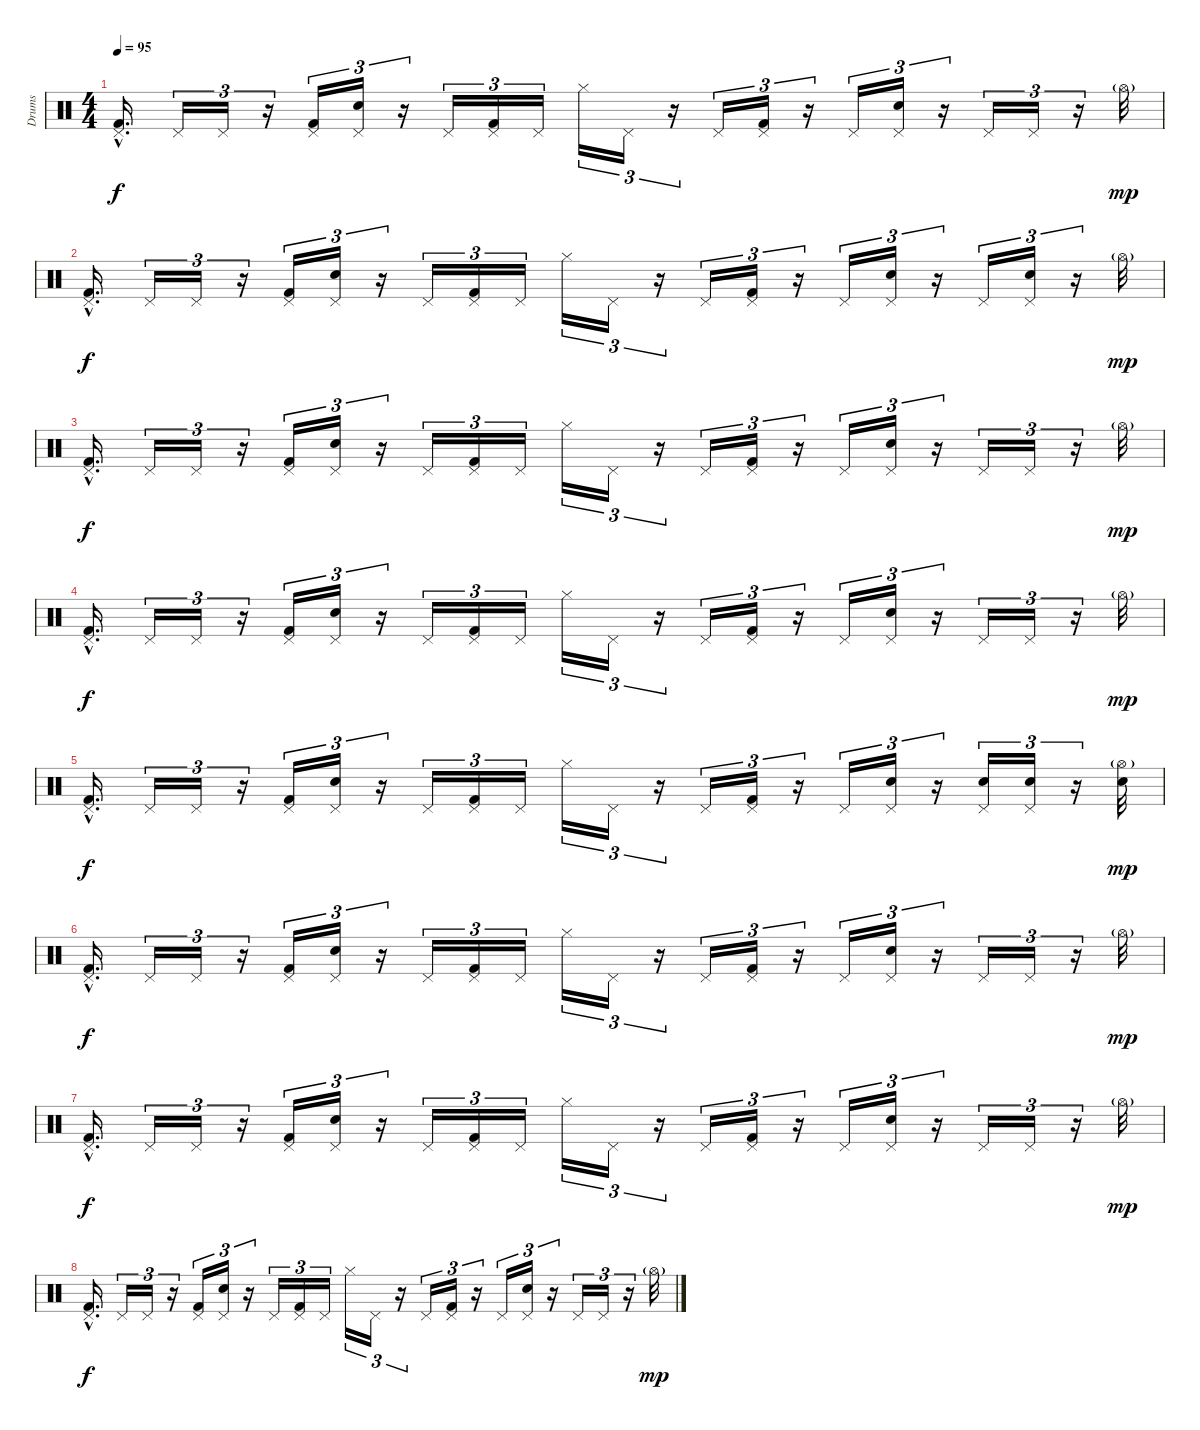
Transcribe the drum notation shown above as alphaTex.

\track ("Drums" "Drums") {instrument percussion}
\staff {score}
\articulation defaults
\ts (4 4)
\tempo 95
\clef neutral
\ks c
("Pedal Hi-Hat (hit)"{hac} "Kick (hit) 2"{hac}).16{d dy f volume 13} "Pedal Hi-Hat (hit)".16{tu (3 2)} "Pedal Hi-Hat (hit)".16{tu (3 2)} r.16{tu (3 2)} ("Pedal Hi-Hat (hit)" "Kick (hit) 2").16{tu (3 2)} ("Pedal Hi-Hat (hit)" "Electric Snare (hit)").16{tu (3 2)} r.16{tu (3 2)} "Pedal Hi-Hat (hit)".16{tu (3 2)} ("Pedal Hi-Hat (hit)" "Kick (hit) 2").16{tu (3 2)} "Pedal Hi-Hat (hit)".16{tu (3 2)} "Hi-Hat (closed)".16{tu (3 2)} "Pedal Hi-Hat (hit)".16{tu (3 2)} r.16{tu (3 2)} "Pedal Hi-Hat (hit)".16{tu (3 2)} ("Pedal Hi-Hat (hit)" "Kick (hit) 2").16{tu (3 2)} r.16{tu (3 2)} "Pedal Hi-Hat (hit)".16{tu (3 2)} ("Pedal Hi-Hat (hit)" "Electric Snare (hit)").16{tu (3 2)} r.16{tu (3 2)} "Pedal Hi-Hat (hit)".16{tu (3 2)} "Pedal Hi-Hat (hit)".16{tu (3 2)} r.16{tu (3 2)} "Hi-Hat (open)"{g}.32{dy mp} |
("Pedal Hi-Hat (hit)"{hac} "Kick (hit) 2"{hac}).16{d dy f} "Pedal Hi-Hat (hit)".16{tu (3 2)} "Pedal Hi-Hat (hit)".16{tu (3 2)} r.16{tu (3 2)} ("Pedal Hi-Hat (hit)" "Kick (hit) 2").16{tu (3 2)} ("Pedal Hi-Hat (hit)" "Electric Snare (hit)").16{tu (3 2)} r.16{tu (3 2)} "Pedal Hi-Hat (hit)".16{tu (3 2)} ("Pedal Hi-Hat (hit)" "Kick (hit) 2").16{tu (3 2)} "Pedal Hi-Hat (hit)".16{tu (3 2)} "Hi-Hat (closed)".16{tu (3 2)} "Pedal Hi-Hat (hit)".16{tu (3 2)} r.16{tu (3 2)} "Pedal Hi-Hat (hit)".16{tu (3 2)} ("Pedal Hi-Hat (hit)" "Kick (hit) 2").16{tu (3 2)} r.16{tu (3 2)} "Pedal Hi-Hat (hit)".16{tu (3 2)} ("Pedal Hi-Hat (hit)" "Electric Snare (hit)").16{tu (3 2)} r.16{tu (3 2)} "Pedal Hi-Hat (hit)".16{tu (3 2)} ("Pedal Hi-Hat (hit)" "Electric Snare (hit)").16{tu (3 2)} r.16{tu (3 2)} "Hi-Hat (open)"{g}.32{dy mp} |
("Pedal Hi-Hat (hit)"{hac} "Kick (hit) 2"{hac}).16{d dy f} "Pedal Hi-Hat (hit)".16{tu (3 2)} "Pedal Hi-Hat (hit)".16{tu (3 2)} r.16{tu (3 2)} ("Pedal Hi-Hat (hit)" "Kick (hit) 2").16{tu (3 2)} ("Pedal Hi-Hat (hit)" "Electric Snare (hit)").16{tu (3 2)} r.16{tu (3 2)} "Pedal Hi-Hat (hit)".16{tu (3 2)} ("Pedal Hi-Hat (hit)" "Kick (hit) 2").16{tu (3 2)} "Pedal Hi-Hat (hit)".16{tu (3 2)} "Hi-Hat (closed)".16{tu (3 2)} "Pedal Hi-Hat (hit)".16{tu (3 2)} r.16{tu (3 2)} "Pedal Hi-Hat (hit)".16{tu (3 2)} ("Pedal Hi-Hat (hit)" "Kick (hit) 2").16{tu (3 2)} r.16{tu (3 2)} "Pedal Hi-Hat (hit)".16{tu (3 2)} ("Pedal Hi-Hat (hit)" "Electric Snare (hit)").16{tu (3 2)} r.16{tu (3 2)} "Pedal Hi-Hat (hit)".16{tu (3 2)} "Pedal Hi-Hat (hit)".16{tu (3 2)} r.16{tu (3 2)} "Hi-Hat (open)"{g}.32{dy mp} |
("Pedal Hi-Hat (hit)"{hac} "Kick (hit) 2"{hac}).16{d dy f} "Pedal Hi-Hat (hit)".16{tu (3 2)} "Pedal Hi-Hat (hit)".16{tu (3 2)} r.16{tu (3 2)} ("Pedal Hi-Hat (hit)" "Kick (hit) 2").16{tu (3 2)} ("Pedal Hi-Hat (hit)" "Electric Snare (hit)").16{tu (3 2)} r.16{tu (3 2)} "Pedal Hi-Hat (hit)".16{tu (3 2)} ("Pedal Hi-Hat (hit)" "Kick (hit) 2").16{tu (3 2)} "Pedal Hi-Hat (hit)".16{tu (3 2)} "Hi-Hat (closed)".16{tu (3 2)} "Pedal Hi-Hat (hit)".16{tu (3 2)} r.16{tu (3 2)} "Pedal Hi-Hat (hit)".16{tu (3 2)} ("Pedal Hi-Hat (hit)" "Kick (hit) 2").16{tu (3 2)} r.16{tu (3 2)} "Pedal Hi-Hat (hit)".16{tu (3 2)} ("Pedal Hi-Hat (hit)" "Electric Snare (hit)").16{tu (3 2)} r.16{tu (3 2)} "Pedal Hi-Hat (hit)".16{tu (3 2)} "Pedal Hi-Hat (hit)".16{tu (3 2)} r.16{tu (3 2)} "Hi-Hat (open)"{g}.32{dy mp} |
("Pedal Hi-Hat (hit)"{hac} "Kick (hit) 2"{hac}).16{d dy f} "Pedal Hi-Hat (hit)".16{tu (3 2)} "Pedal Hi-Hat (hit)".16{tu (3 2)} r.16{tu (3 2)} ("Pedal Hi-Hat (hit)" "Kick (hit) 2").16{tu (3 2)} ("Pedal Hi-Hat (hit)" "Electric Snare (hit)").16{tu (3 2)} r.16{tu (3 2)} "Pedal Hi-Hat (hit)".16{tu (3 2)} ("Pedal Hi-Hat (hit)" "Kick (hit) 2").16{tu (3 2)} "Pedal Hi-Hat (hit)".16{tu (3 2)} "Hi-Hat (closed)".16{tu (3 2)} "Pedal Hi-Hat (hit)".16{tu (3 2)} r.16{tu (3 2)} "Pedal Hi-Hat (hit)".16{tu (3 2)} ("Pedal Hi-Hat (hit)" "Kick (hit) 2").16{tu (3 2)} r.16{tu (3 2)} "Pedal Hi-Hat (hit)".16{tu (3 2)} ("Pedal Hi-Hat (hit)" "Electric Snare (hit)").16{tu (3 2)} r.16{tu (3 2)} ("Pedal Hi-Hat (hit)" "Electric Snare (hit)").16{tu (3 2)} ("Pedal Hi-Hat (hit)" "Electric Snare (hit)").16{tu (3 2)} r.16{tu (3 2)} ("Hi-Hat (open)"{g} "Electric Snare (hit)").32{dy mp} |
("Pedal Hi-Hat (hit)"{hac} "Kick (hit) 2"{hac}).16{d dy f} "Pedal Hi-Hat (hit)".16{tu (3 2)} "Pedal Hi-Hat (hit)".16{tu (3 2)} r.16{tu (3 2)} ("Pedal Hi-Hat (hit)" "Kick (hit) 2").16{tu (3 2)} ("Pedal Hi-Hat (hit)" "Electric Snare (hit)").16{tu (3 2)} r.16{tu (3 2)} "Pedal Hi-Hat (hit)".16{tu (3 2)} ("Pedal Hi-Hat (hit)" "Kick (hit) 2").16{tu (3 2)} "Pedal Hi-Hat (hit)".16{tu (3 2)} "Hi-Hat (closed)".16{tu (3 2)} "Pedal Hi-Hat (hit)".16{tu (3 2)} r.16{tu (3 2)} "Pedal Hi-Hat (hit)".16{tu (3 2)} ("Pedal Hi-Hat (hit)" "Kick (hit) 2").16{tu (3 2)} r.16{tu (3 2)} "Pedal Hi-Hat (hit)".16{tu (3 2)} ("Pedal Hi-Hat (hit)" "Electric Snare (hit)").16{tu (3 2)} r.16{tu (3 2)} "Pedal Hi-Hat (hit)".16{tu (3 2)} "Pedal Hi-Hat (hit)".16{tu (3 2)} r.16{tu (3 2)} "Hi-Hat (open)"{g}.32{dy mp} |
("Pedal Hi-Hat (hit)"{hac} "Kick (hit) 2"{hac}).16{d dy f volume 13} "Pedal Hi-Hat (hit)".16{tu (3 2)} "Pedal Hi-Hat (hit)".16{tu (3 2)} r.16{tu (3 2)} ("Pedal Hi-Hat (hit)" "Kick (hit) 2").16{tu (3 2)} ("Pedal Hi-Hat (hit)" "Electric Snare (hit)").16{tu (3 2)} r.16{tu (3 2)} "Pedal Hi-Hat (hit)".16{tu (3 2)} ("Pedal Hi-Hat (hit)" "Kick (hit) 2").16{tu (3 2)} "Pedal Hi-Hat (hit)".16{tu (3 2)} "Hi-Hat (closed)".16{tu (3 2)} "Pedal Hi-Hat (hit)".16{tu (3 2)} r.16{tu (3 2)} "Pedal Hi-Hat (hit)".16{tu (3 2)} ("Pedal Hi-Hat (hit)" "Kick (hit) 2").16{tu (3 2)} r.16{tu (3 2)} "Pedal Hi-Hat (hit)".16{tu (3 2)} ("Pedal Hi-Hat (hit)" "Electric Snare (hit)").16{tu (3 2)} r.16{tu (3 2)} "Pedal Hi-Hat (hit)".16{tu (3 2)} "Pedal Hi-Hat (hit)".16{tu (3 2)} r.16{tu (3 2)} "Hi-Hat (open)"{g}.32{dy mp} |
("Pedal Hi-Hat (hit)"{hac} "Kick (hit) 2"{hac}).16{d dy f} "Pedal Hi-Hat (hit)".16{tu (3 2)} "Pedal Hi-Hat (hit)".16{tu (3 2)} r.16{tu (3 2)} ("Pedal Hi-Hat (hit)" "Kick (hit) 2").16{tu (3 2)} ("Pedal Hi-Hat (hit)" "Electric Snare (hit)").16{tu (3 2)} r.16{tu (3 2)} "Pedal Hi-Hat (hit)".16{tu (3 2)} ("Pedal Hi-Hat (hit)" "Kick (hit) 2").16{tu (3 2)} "Pedal Hi-Hat (hit)".16{tu (3 2)} "Hi-Hat (closed)".16{tu (3 2)} "Pedal Hi-Hat (hit)".16{tu (3 2)} r.16{tu (3 2)} "Pedal Hi-Hat (hit)".16{tu (3 2)} ("Pedal Hi-Hat (hit)" "Kick (hit) 2").16{tu (3 2)} r.16{tu (3 2)} "Pedal Hi-Hat (hit)".16{tu (3 2)} ("Pedal Hi-Hat (hit)" "Electric Snare (hit)").16{tu (3 2)} r.16{tu (3 2)} "Pedal Hi-Hat (hit)".16{tu (3 2)} "Pedal Hi-Hat (hit)".16{tu (3 2)} r.16{tu (3 2)} "Hi-Hat (open)"{g}.32{dy mp}
